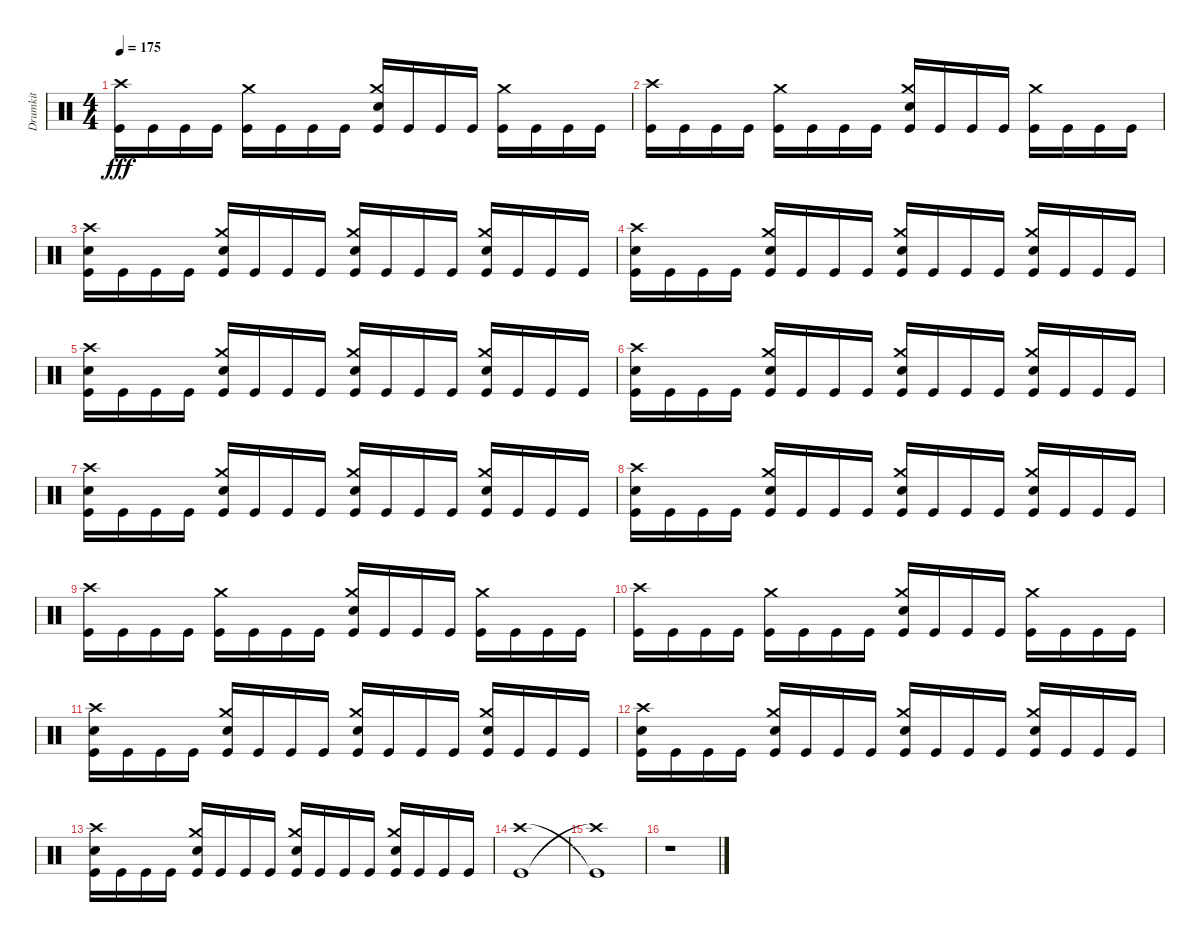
\track ("Drumkit" "Drumkit") {instrument percussion}
\staff {score}
\articulation defaults
\ts (4 4)
\tempo 175
\clef neutral
\ks c
("Crash high (hit)" "Kick (hit)").16{dy fff} "Kick (hit)".16 "Kick (hit)".16 "Kick (hit)".16 ("Crash medium (hit)" "Kick (hit)").16 "Kick (hit)".16 "Kick (hit)".16 "Kick (hit)".16 ("Crash medium (hit)" "Snare (hit) 2" "Kick (hit)").16 "Kick (hit)".16 "Kick (hit)".16 "Kick (hit)".16 ("Crash medium (hit)" "Kick (hit)").16 "Kick (hit)".16 "Kick (hit)".16 "Kick (hit)".16 |
("Crash high (hit)" "Kick (hit)").16 "Kick (hit)".16 "Kick (hit)".16 "Kick (hit)".16 ("Crash medium (hit)" "Kick (hit)").16 "Kick (hit)".16 "Kick (hit)".16 "Kick (hit)".16 ("Crash medium (hit)" "Snare (hit) 2" "Kick (hit)").16 "Kick (hit)".16 "Kick (hit)".16 "Kick (hit)".16 ("Crash medium (hit)" "Kick (hit)").16 "Kick (hit)".16 "Kick (hit)".16 "Kick (hit)".16 |
("Crash high (hit)" "Snare (hit) 2" "Kick (hit)").16 "Kick (hit)".16 "Kick (hit)".16 "Kick (hit)".16 ("Crash medium (hit)" "Snare (hit) 2" "Kick (hit)").16 "Kick (hit)".16 "Kick (hit)".16 "Kick (hit)".16 ("Crash medium (hit)" "Snare (hit) 2" "Kick (hit)").16 "Kick (hit)".16 "Kick (hit)".16 "Kick (hit)".16 ("Crash medium (hit)" "Snare (hit) 2" "Kick (hit)").16 "Kick (hit)".16 "Kick (hit)".16 "Kick (hit)".16 |
("Crash high (hit)" "Snare (hit) 2" "Kick (hit)").16 "Kick (hit)".16 "Kick (hit)".16 "Kick (hit)".16 ("Crash medium (hit)" "Snare (hit) 2" "Kick (hit)").16 "Kick (hit)".16 "Kick (hit)".16 "Kick (hit)".16 ("Crash medium (hit)" "Snare (hit) 2" "Kick (hit)").16 "Kick (hit)".16 "Kick (hit)".16 "Kick (hit)".16 ("Crash medium (hit)" "Snare (hit) 2" "Kick (hit)").16 "Kick (hit)".16 "Kick (hit)".16 "Kick (hit)".16 |
("Crash high (hit)" "Snare (hit) 2" "Kick (hit)").16 "Kick (hit)".16 "Kick (hit)".16 "Kick (hit)".16 ("Crash medium (hit)" "Snare (hit) 2" "Kick (hit)").16 "Kick (hit)".16 "Kick (hit)".16 "Kick (hit)".16 ("Crash medium (hit)" "Snare (hit) 2" "Kick (hit)").16 "Kick (hit)".16 "Kick (hit)".16 "Kick (hit)".16 ("Crash medium (hit)" "Snare (hit) 2" "Kick (hit)").16 "Kick (hit)".16 "Kick (hit)".16 "Kick (hit)".16 |
("Crash high (hit)" "Snare (hit) 2" "Kick (hit)").16 "Kick (hit)".16 "Kick (hit)".16 "Kick (hit)".16 ("Crash medium (hit)" "Snare (hit) 2" "Kick (hit)").16 "Kick (hit)".16 "Kick (hit)".16 "Kick (hit)".16 ("Crash medium (hit)" "Snare (hit) 2" "Kick (hit)").16 "Kick (hit)".16 "Kick (hit)".16 "Kick (hit)".16 ("Crash medium (hit)" "Snare (hit) 2" "Kick (hit)").16 "Kick (hit)".16 "Kick (hit)".16 "Kick (hit)".16 |
("Crash high (hit)" "Snare (hit) 2" "Kick (hit)").16 "Kick (hit)".16 "Kick (hit)".16 "Kick (hit)".16 ("Crash medium (hit)" "Snare (hit) 2" "Kick (hit)").16 "Kick (hit)".16 "Kick (hit)".16 "Kick (hit)".16 ("Crash medium (hit)" "Snare (hit) 2" "Kick (hit)").16 "Kick (hit)".16 "Kick (hit)".16 "Kick (hit)".16 ("Crash medium (hit)" "Snare (hit) 2" "Kick (hit)").16 "Kick (hit)".16 "Kick (hit)".16 "Kick (hit)".16 |
("Crash high (hit)" "Snare (hit) 2" "Kick (hit)").16 "Kick (hit)".16 "Kick (hit)".16 "Kick (hit)".16 ("Crash medium (hit)" "Snare (hit) 2" "Kick (hit)").16 "Kick (hit)".16 "Kick (hit)".16 "Kick (hit)".16 ("Crash medium (hit)" "Snare (hit) 2" "Kick (hit)").16 "Kick (hit)".16 "Kick (hit)".16 "Kick (hit)".16 ("Crash medium (hit)" "Snare (hit) 2" "Kick (hit)").16 "Kick (hit)".16 "Kick (hit)".16 "Kick (hit)".16 |
("Crash high (hit)" "Kick (hit)").16 "Kick (hit)".16 "Kick (hit)".16 "Kick (hit)".16 ("Crash medium (hit)" "Kick (hit)").16 "Kick (hit)".16 "Kick (hit)".16 "Kick (hit)".16 ("Crash medium (hit)" "Snare (hit) 2" "Kick (hit)").16 "Kick (hit)".16 "Kick (hit)".16 "Kick (hit)".16 ("Crash medium (hit)" "Kick (hit)").16 "Kick (hit)".16 "Kick (hit)".16 "Kick (hit)".16 |
("Crash high (hit)" "Kick (hit)").16 "Kick (hit)".16 "Kick (hit)".16 "Kick (hit)".16 ("Crash medium (hit)" "Kick (hit)").16 "Kick (hit)".16 "Kick (hit)".16 "Kick (hit)".16 ("Crash medium (hit)" "Snare (hit) 2" "Kick (hit)").16 "Kick (hit)".16 "Kick (hit)".16 "Kick (hit)".16 ("Crash medium (hit)" "Kick (hit)").16 "Kick (hit)".16 "Kick (hit)".16 "Kick (hit)".16 |
("Crash high (hit)" "Snare (hit) 2" "Kick (hit)").16 "Kick (hit)".16 "Kick (hit)".16 "Kick (hit)".16 ("Crash medium (hit)" "Snare (hit) 2" "Kick (hit)").16 "Kick (hit)".16 "Kick (hit)".16 "Kick (hit)".16 ("Crash medium (hit)" "Snare (hit) 2" "Kick (hit)").16 "Kick (hit)".16 "Kick (hit)".16 "Kick (hit)".16 ("Crash medium (hit)" "Snare (hit) 2" "Kick (hit)").16 "Kick (hit)".16 "Kick (hit)".16 "Kick (hit)".16 |
("Crash high (hit)" "Snare (hit) 2" "Kick (hit)").16 "Kick (hit)".16 "Kick (hit)".16 "Kick (hit)".16 ("Crash medium (hit)" "Snare (hit) 2" "Kick (hit)").16 "Kick (hit)".16 "Kick (hit)".16 "Kick (hit)".16 ("Crash medium (hit)" "Snare (hit) 2" "Kick (hit)").16 "Kick (hit)".16 "Kick (hit)".16 "Kick (hit)".16 ("Crash medium (hit)" "Snare (hit) 2" "Kick (hit)").16 "Kick (hit)".16 "Kick (hit)".16 "Kick (hit)".16 |
("Crash high (hit)" "Snare (hit) 2" "Kick (hit)").16 "Kick (hit)".16 "Kick (hit)".16 "Kick (hit)".16 ("Crash medium (hit)" "Snare (hit) 2" "Kick (hit)").16 "Kick (hit)".16 "Kick (hit)".16 "Kick (hit)".16 ("Crash medium (hit)" "Snare (hit) 2" "Kick (hit)").16 "Kick (hit)".16 "Kick (hit)".16 "Kick (hit)".16 ("Crash medium (hit)" "Snare (hit) 2" "Kick (hit)").16 "Kick (hit)".16 "Kick (hit)".16 "Kick (hit)".16 |
("Crash high (hit)" "Kick (hit)").1 |
("Kick (hit)"{t} "Crash high (hit)"{t}).1 |
r.1
